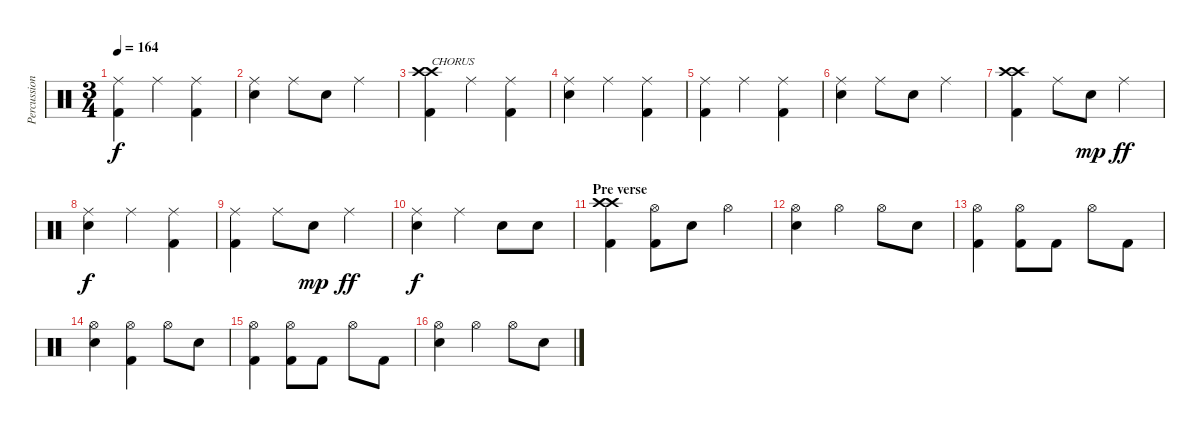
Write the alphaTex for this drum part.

\track ("Percussion" "Percussion") {instrument percussion}
\staff {score}
\articulation defaults
\ts (3 4)
\tempo 164
\clef neutral
\ks c
("Ride (middle)" "Kick (hit) 2").4{dy f} "Ride (middle)".4 ("Ride (middle)" "Kick (hit) 2").4 |
("Ride (middle)" "Snare (hit) 2").4 "Ride (middle)".8 "Snare (hit) 2".8 "Ride (middle)".4 |
("Crash high (hit)" "Crash high (hit)" "Kick (hit) 2").4{txt "CHORUS"} "Ride (middle)".4 ("Ride (middle)" "Kick (hit) 2").4 |
("Ride (middle)" "Snare (hit) 2").4 "Ride (middle)".4 ("Ride (middle)" "Kick (hit) 2").4 |
("Ride (middle)" "Kick (hit) 2").4 "Ride (middle)".4 ("Ride (middle)" "Kick (hit) 2").4 |
("Ride (middle)" "Snare (hit) 2").4 "Ride (middle)".8 "Snare (hit) 2".8 "Ride (middle)".4 |
("Crash high (hit)" "Crash high (hit)" "Kick (hit) 2").4 "Ride (middle)".8 "Snare (hit) 2".8{dy mp} "Ride (middle)".4{dy ff} |
("Ride (middle)" "Snare (hit) 2").4{dy f} "Ride (middle)".4 ("Ride (middle)" "Kick (hit) 2").4 |
("Ride (middle)" "Kick (hit) 2").4 "Ride (middle)".8 "Snare (hit) 2".8{dy mp} "Ride (middle)".4{dy ff} |
("Ride (middle)" "Snare (hit) 2").4{dy f} "Ride (middle)".4 "Snare (hit) 2".8 "Snare (hit) 2".8 |
\section ("" "Pre verse")
("Crash high (hit)" "Crash high (hit)" "Kick (hit) 2").4 ("Hi-Hat (open)" "Kick (hit) 2").8 "Snare (hit) 2".8 "Hi-Hat (open)".4 |
("Hi-Hat (open)" "Snare (hit) 2").4 "Hi-Hat (open)".4 "Hi-Hat (open)".8 "Snare (hit) 2".8 |
("Hi-Hat (open)" "Kick (hit) 2").4 ("Hi-Hat (open)" "Kick (hit) 2").8 "Kick (hit) 2".8 "Hi-Hat (open)".8 "Kick (hit) 2".8 |
("Hi-Hat (open)" "Snare (hit) 2").4 ("Hi-Hat (open)" "Kick (hit) 2").4 "Hi-Hat (open)".8 "Snare (hit) 2".8 |
("Hi-Hat (open)" "Kick (hit) 2").4 ("Hi-Hat (open)" "Kick (hit) 2").8 "Kick (hit) 2".8 "Hi-Hat (open)".8 "Kick (hit) 2".8 |
("Hi-Hat (open)" "Snare (hit) 2").4 "Hi-Hat (open)".4 "Hi-Hat (open)".8 "Snare (hit) 2".8
